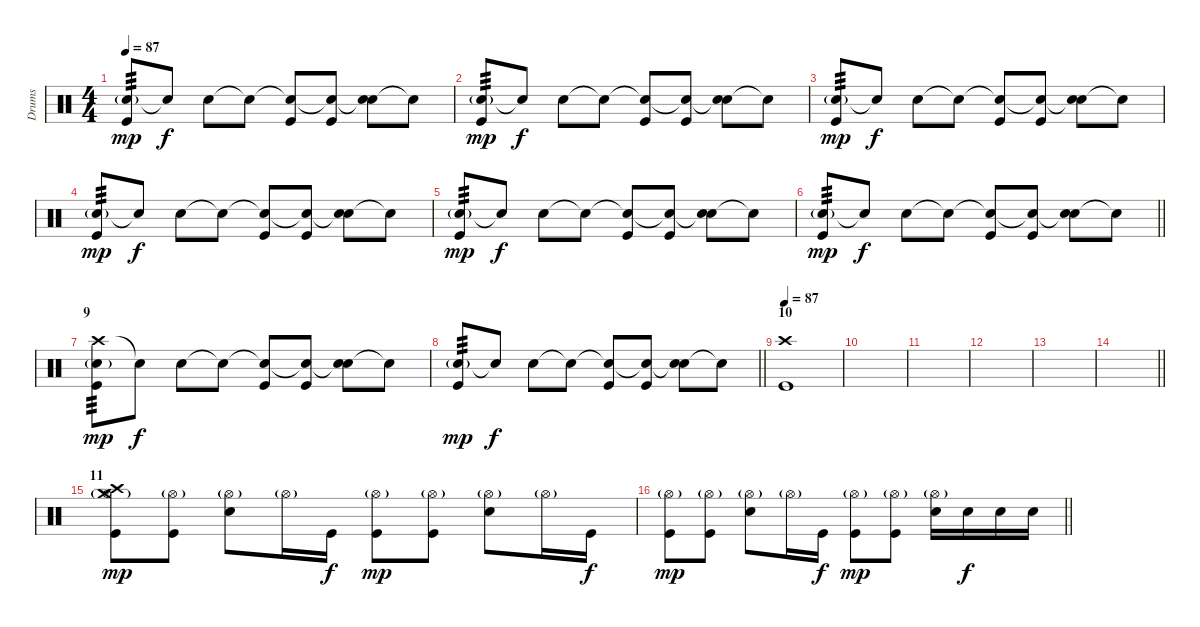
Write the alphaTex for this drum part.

\track ("Drums" "Drums") {instrument percussion}
\staff {score}
\articulation defaults
\ts (4 4)
\tempo 87
\clef neutral
\ks c
("Electric Snare (hit)"{g} "Kick (hit)").8{tp 3 dy mp} "Snare (hit)"{t}.8{dy f} "Electric Snare (hit)".8 "Snare (hit)"{t}.8 ("Snare (hit)"{t} "Kick (hit)").8 ("Snare (hit)"{t} "Kick (hit)").8 ("Snare (hit)"{t} "Electric Snare (hit)").8 "Snare (hit)"{t}.8 |
("Electric Snare (hit)"{g} "Kick (hit)").8{tp 3 dy mp} "Snare (hit)"{t}.8{dy f} "Electric Snare (hit)".8 "Snare (hit)"{t}.8 ("Snare (hit)"{t} "Kick (hit)").8 ("Snare (hit)"{t} "Kick (hit)").8 ("Snare (hit)"{t} "Electric Snare (hit)").8 "Snare (hit)"{t}.8 |
("Electric Snare (hit)"{g} "Kick (hit)").8{tp 3 dy mp} "Snare (hit)"{t}.8{dy f} "Electric Snare (hit)".8 "Snare (hit)"{t}.8 ("Snare (hit)"{t} "Kick (hit)").8 ("Snare (hit)"{t} "Kick (hit)").8 ("Snare (hit)"{t} "Electric Snare (hit)").8 "Snare (hit)"{t}.8 |
("Electric Snare (hit)"{g} "Kick (hit)").8{tp 3 dy mp} "Snare (hit)"{t}.8{dy f} "Electric Snare (hit)".8 "Snare (hit)"{t}.8 ("Snare (hit)"{t} "Kick (hit)").8 ("Snare (hit)"{t} "Kick (hit)").8 ("Snare (hit)"{t} "Electric Snare (hit)").8 "Snare (hit)"{t}.8 |
("Electric Snare (hit)"{g} "Kick (hit)").8{tp 3 dy mp} "Snare (hit)"{t}.8{dy f} "Electric Snare (hit)".8 "Snare (hit)"{t}.8 ("Snare (hit)"{t} "Kick (hit)").8 ("Snare (hit)"{t} "Kick (hit)").8 ("Snare (hit)"{t} "Electric Snare (hit)").8 "Snare (hit)"{t}.8 |
\barLineRight lightlight
("Electric Snare (hit)"{g} "Kick (hit)").8{tp 3 dy mp} "Snare (hit)"{t}.8{dy f} "Electric Snare (hit)".8 "Snare (hit)"{t}.8 ("Snare (hit)"{t} "Kick (hit)").8 ("Snare (hit)"{t} "Kick (hit)").8 ("Snare (hit)"{t} "Electric Snare (hit)").8 "Snare (hit)"{t}.8 |
\section ("" "9")
("Crash high (hit)" "Electric Snare (hit)"{g} "Kick (hit)").8{tp 3 dy mp} "Snare (hit)"{t}.8{dy f} "Electric Snare (hit)".8 "Snare (hit)"{t}.8 ("Snare (hit)"{t} "Kick (hit)").8 ("Snare (hit)"{t} "Kick (hit)").8 ("Snare (hit)"{t} "Electric Snare (hit)").8 "Snare (hit)"{t}.8 |
\barLineRight lightlight
("Electric Snare (hit)"{g} "Kick (hit)").8{tp 3 dy mp} "Snare (hit)"{t}.8{dy f} "Electric Snare (hit)".8 "Snare (hit)"{t}.8 ("Snare (hit)"{t} "Kick (hit)").8 ("Snare (hit)"{t} "Kick (hit)").8 ("Snare (hit)"{t} "Electric Snare (hit)").8 "Snare (hit)"{t}.8 |
\section ("" "10")
\tempo 87
("Crash high (hit)" "Kick (hit)").1 |
|
|
|
|
\barLineRight lightlight
|
\section ("" "11")
("Crash medium (hit)" "Hi-Hat (open)"{g} "Crash high (hit)" "Kick (hit)").8{dy mp} ("Hi-Hat (open)"{g} "Kick (hit)").8 ("Hi-Hat (open)"{g} "Electric Snare (hit)").8 "Hi-Hat (open)"{g}.16 "Kick (hit)".16{dy f} ("Hi-Hat (open)"{g} "Kick (hit)").8{dy mp} ("Hi-Hat (open)"{g} "Kick (hit)").8 ("Hi-Hat (open)"{g} "Electric Snare (hit)").8 "Hi-Hat (open)"{g}.16 "Kick (hit)".16{dy f} |
\barLineRight lightlight
("Hi-Hat (open)"{g} "Kick (hit)").8{dy mp} ("Hi-Hat (open)"{g} "Kick (hit)").8 ("Hi-Hat (open)"{g} "Electric Snare (hit)").8 "Hi-Hat (open)"{g}.16 "Kick (hit)".16{dy f} ("Hi-Hat (open)"{g} "Kick (hit)").8{dy mp} ("Hi-Hat (open)"{g} "Kick (hit)").8 ("Hi-Hat (open)"{g} "Electric Snare (hit)").16 "Electric Snare (hit)".16{dy f} "Electric Snare (hit)".16 "Electric Snare (hit)".16
